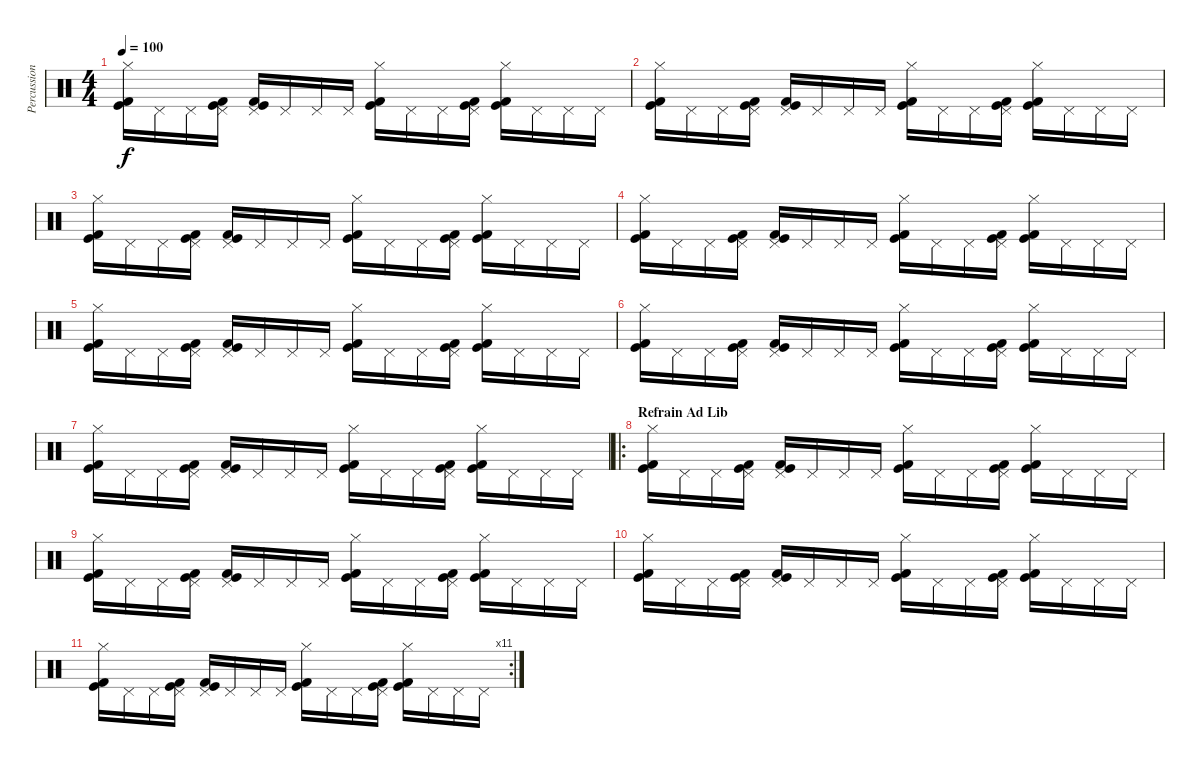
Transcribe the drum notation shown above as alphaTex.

\track ("Percussions" "Percussion") {instrument percussion}
\staff {score}
\articulation defaults
\ts (4 4)
\tempo 100
\clef neutral
\ks c
("Kick (hit)" "Kick (hit) 2" "Hi-Hat (closed)").16{dy f} "Pedal Hi-Hat (hit)".16 "Pedal Hi-Hat (hit)".16 ("Kick (hit)" "Kick (hit) 2" "Pedal Hi-Hat (hit)").16 ("Kick (hit)" "Kick (hit) 2" "Pedal Hi-Hat (hit)").16 "Pedal Hi-Hat (hit)".16 "Pedal Hi-Hat (hit)".16 "Pedal Hi-Hat (hit)".16 ("Kick (hit)" "Kick (hit) 2" "Hi-Hat (closed)").16 "Pedal Hi-Hat (hit)".16 "Pedal Hi-Hat (hit)".16 ("Kick (hit)" "Kick (hit) 2" "Pedal Hi-Hat (hit)").16 ("Kick (hit)" "Kick (hit) 2" "Hi-Hat (closed)").16 "Pedal Hi-Hat (hit)".16 "Pedal Hi-Hat (hit)".16 "Pedal Hi-Hat (hit)".16 |
("Kick (hit)" "Kick (hit) 2" "Hi-Hat (closed)").16 "Pedal Hi-Hat (hit)".16 "Pedal Hi-Hat (hit)".16 ("Kick (hit)" "Kick (hit) 2" "Pedal Hi-Hat (hit)").16 ("Kick (hit)" "Kick (hit) 2" "Pedal Hi-Hat (hit)").16 "Pedal Hi-Hat (hit)".16 "Pedal Hi-Hat (hit)".16 "Pedal Hi-Hat (hit)".16 ("Kick (hit)" "Kick (hit) 2" "Hi-Hat (closed)").16 "Pedal Hi-Hat (hit)".16 "Pedal Hi-Hat (hit)".16 ("Kick (hit)" "Kick (hit) 2" "Pedal Hi-Hat (hit)").16 ("Kick (hit)" "Kick (hit) 2" "Hi-Hat (closed)").16 "Pedal Hi-Hat (hit)".16 "Pedal Hi-Hat (hit)".16 "Pedal Hi-Hat (hit)".16 |
("Kick (hit)" "Kick (hit) 2" "Hi-Hat (closed)").16 "Pedal Hi-Hat (hit)".16 "Pedal Hi-Hat (hit)".16 ("Kick (hit)" "Kick (hit) 2" "Pedal Hi-Hat (hit)").16 ("Kick (hit)" "Kick (hit) 2" "Pedal Hi-Hat (hit)").16 "Pedal Hi-Hat (hit)".16 "Pedal Hi-Hat (hit)".16 "Pedal Hi-Hat (hit)".16 ("Kick (hit)" "Kick (hit) 2" "Hi-Hat (closed)").16 "Pedal Hi-Hat (hit)".16 "Pedal Hi-Hat (hit)".16 ("Kick (hit)" "Kick (hit) 2" "Pedal Hi-Hat (hit)").16 ("Kick (hit)" "Kick (hit) 2" "Hi-Hat (closed)").16 "Pedal Hi-Hat (hit)".16 "Pedal Hi-Hat (hit)".16 "Pedal Hi-Hat (hit)".16 |
("Kick (hit)" "Kick (hit) 2" "Hi-Hat (closed)").16 "Pedal Hi-Hat (hit)".16 "Pedal Hi-Hat (hit)".16 ("Kick (hit)" "Kick (hit) 2" "Pedal Hi-Hat (hit)").16 ("Kick (hit)" "Kick (hit) 2" "Pedal Hi-Hat (hit)").16 "Pedal Hi-Hat (hit)".16 "Pedal Hi-Hat (hit)".16 "Pedal Hi-Hat (hit)".16 ("Kick (hit)" "Kick (hit) 2" "Hi-Hat (closed)").16 "Pedal Hi-Hat (hit)".16 "Pedal Hi-Hat (hit)".16 ("Kick (hit)" "Kick (hit) 2" "Pedal Hi-Hat (hit)").16 ("Kick (hit)" "Kick (hit) 2" "Hi-Hat (closed)").16 "Pedal Hi-Hat (hit)".16 "Pedal Hi-Hat (hit)".16 "Pedal Hi-Hat (hit)".16 |
("Kick (hit)" "Kick (hit) 2" "Hi-Hat (closed)").16 "Pedal Hi-Hat (hit)".16 "Pedal Hi-Hat (hit)".16 ("Kick (hit)" "Kick (hit) 2" "Pedal Hi-Hat (hit)").16 ("Kick (hit)" "Kick (hit) 2" "Pedal Hi-Hat (hit)").16 "Pedal Hi-Hat (hit)".16 "Pedal Hi-Hat (hit)".16 "Pedal Hi-Hat (hit)".16 ("Kick (hit)" "Kick (hit) 2" "Hi-Hat (closed)").16 "Pedal Hi-Hat (hit)".16 "Pedal Hi-Hat (hit)".16 ("Kick (hit)" "Kick (hit) 2" "Pedal Hi-Hat (hit)").16 ("Kick (hit)" "Kick (hit) 2" "Hi-Hat (closed)").16 "Pedal Hi-Hat (hit)".16 "Pedal Hi-Hat (hit)".16 "Pedal Hi-Hat (hit)".16 |
("Kick (hit)" "Kick (hit) 2" "Hi-Hat (closed)").16 "Pedal Hi-Hat (hit)".16 "Pedal Hi-Hat (hit)".16 ("Kick (hit)" "Kick (hit) 2" "Pedal Hi-Hat (hit)").16 ("Kick (hit)" "Kick (hit) 2" "Pedal Hi-Hat (hit)").16 "Pedal Hi-Hat (hit)".16 "Pedal Hi-Hat (hit)".16 "Pedal Hi-Hat (hit)".16 ("Kick (hit)" "Kick (hit) 2" "Hi-Hat (closed)").16 "Pedal Hi-Hat (hit)".16 "Pedal Hi-Hat (hit)".16 ("Kick (hit)" "Kick (hit) 2" "Pedal Hi-Hat (hit)").16 ("Kick (hit)" "Kick (hit) 2" "Hi-Hat (closed)").16 "Pedal Hi-Hat (hit)".16 "Pedal Hi-Hat (hit)".16 "Pedal Hi-Hat (hit)".16 |
("Kick (hit)" "Kick (hit) 2" "Hi-Hat (closed)").16 "Pedal Hi-Hat (hit)".16 "Pedal Hi-Hat (hit)".16 ("Kick (hit)" "Kick (hit) 2" "Pedal Hi-Hat (hit)").16 ("Kick (hit)" "Kick (hit) 2" "Pedal Hi-Hat (hit)").16 "Pedal Hi-Hat (hit)".16 "Pedal Hi-Hat (hit)".16 "Pedal Hi-Hat (hit)".16 ("Kick (hit)" "Kick (hit) 2" "Hi-Hat (closed)").16 "Pedal Hi-Hat (hit)".16 "Pedal Hi-Hat (hit)".16 ("Kick (hit)" "Kick (hit) 2" "Pedal Hi-Hat (hit)").16 ("Kick (hit)" "Kick (hit) 2" "Hi-Hat (closed)").16 "Pedal Hi-Hat (hit)".16 "Pedal Hi-Hat (hit)".16 "Pedal Hi-Hat (hit)".16 |
\ro
\section ("" "Refrain Ad Lib")
("Kick (hit)" "Kick (hit) 2" "Hi-Hat (closed)").16 "Pedal Hi-Hat (hit)".16 "Pedal Hi-Hat (hit)".16 ("Kick (hit)" "Kick (hit) 2" "Pedal Hi-Hat (hit)").16 ("Kick (hit)" "Kick (hit) 2" "Pedal Hi-Hat (hit)").16 "Pedal Hi-Hat (hit)".16 "Pedal Hi-Hat (hit)".16 "Pedal Hi-Hat (hit)".16 ("Kick (hit)" "Kick (hit) 2" "Hi-Hat (closed)").16 "Pedal Hi-Hat (hit)".16 "Pedal Hi-Hat (hit)".16 ("Kick (hit)" "Kick (hit) 2" "Pedal Hi-Hat (hit)").16 ("Kick (hit)" "Kick (hit) 2" "Hi-Hat (closed)").16 "Pedal Hi-Hat (hit)".16 "Pedal Hi-Hat (hit)".16 "Pedal Hi-Hat (hit)".16 |
("Kick (hit)" "Kick (hit) 2" "Hi-Hat (closed)").16 "Pedal Hi-Hat (hit)".16 "Pedal Hi-Hat (hit)".16 ("Kick (hit)" "Kick (hit) 2" "Pedal Hi-Hat (hit)").16 ("Kick (hit)" "Kick (hit) 2" "Pedal Hi-Hat (hit)").16 "Pedal Hi-Hat (hit)".16 "Pedal Hi-Hat (hit)".16 "Pedal Hi-Hat (hit)".16 ("Kick (hit)" "Kick (hit) 2" "Hi-Hat (closed)").16 "Pedal Hi-Hat (hit)".16 "Pedal Hi-Hat (hit)".16 ("Kick (hit)" "Kick (hit) 2" "Pedal Hi-Hat (hit)").16 ("Kick (hit)" "Kick (hit) 2" "Hi-Hat (closed)").16 "Pedal Hi-Hat (hit)".16 "Pedal Hi-Hat (hit)".16 "Pedal Hi-Hat (hit)".16 |
("Kick (hit)" "Kick (hit) 2" "Hi-Hat (closed)").16 "Pedal Hi-Hat (hit)".16 "Pedal Hi-Hat (hit)".16 ("Kick (hit)" "Kick (hit) 2" "Pedal Hi-Hat (hit)").16 ("Kick (hit)" "Kick (hit) 2" "Pedal Hi-Hat (hit)").16 "Pedal Hi-Hat (hit)".16 "Pedal Hi-Hat (hit)".16 "Pedal Hi-Hat (hit)".16 ("Kick (hit)" "Kick (hit) 2" "Hi-Hat (closed)").16 "Pedal Hi-Hat (hit)".16 "Pedal Hi-Hat (hit)".16 ("Kick (hit)" "Kick (hit) 2" "Pedal Hi-Hat (hit)").16 ("Kick (hit)" "Kick (hit) 2" "Hi-Hat (closed)").16 "Pedal Hi-Hat (hit)".16 "Pedal Hi-Hat (hit)".16 "Pedal Hi-Hat (hit)".16 |
\rc 11
("Kick (hit)" "Kick (hit) 2" "Hi-Hat (closed)").16 "Pedal Hi-Hat (hit)".16 "Pedal Hi-Hat (hit)".16 ("Kick (hit)" "Kick (hit) 2" "Pedal Hi-Hat (hit)").16 ("Kick (hit)" "Kick (hit) 2" "Pedal Hi-Hat (hit)").16 "Pedal Hi-Hat (hit)".16 "Pedal Hi-Hat (hit)".16 "Pedal Hi-Hat (hit)".16 ("Kick (hit)" "Kick (hit) 2" "Hi-Hat (closed)").16 "Pedal Hi-Hat (hit)".16 "Pedal Hi-Hat (hit)".16 ("Kick (hit)" "Kick (hit) 2" "Pedal Hi-Hat (hit)").16 ("Kick (hit)" "Kick (hit) 2" "Hi-Hat (closed)").16 "Pedal Hi-Hat (hit)".16 "Pedal Hi-Hat (hit)".16 "Pedal Hi-Hat (hit)".16
